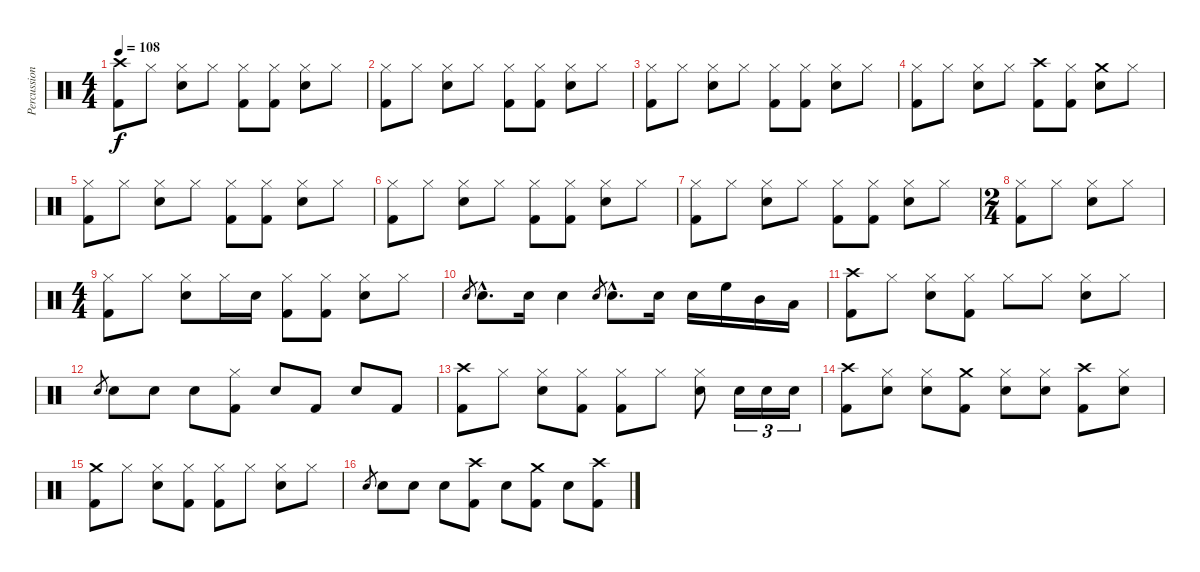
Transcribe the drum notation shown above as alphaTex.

\track ("Percussion" "Percussion") {instrument percussion}
\staff {score}
\articulation defaults
\ts (4 4)
\tempo 108
\clef neutral
\ks c
("Kick (hit) 2" "Crash high (hit)").8{dy f} "Hi-Hat (closed)".8 ("Snare (hit) 2" "Hi-Hat (closed)").8 "Hi-Hat (closed)".8 ("Kick (hit) 2" "Hi-Hat (closed)").8 ("Kick (hit) 2" "Hi-Hat (closed)").8 ("Snare (hit) 2" "Hi-Hat (closed)").8 "Hi-Hat (closed)".8 |
("Kick (hit) 2" "Hi-Hat (closed)").8 "Hi-Hat (closed)".8 ("Snare (hit) 2" "Hi-Hat (closed)").8 "Hi-Hat (closed)".8 ("Kick (hit) 2" "Hi-Hat (closed)").8 ("Kick (hit) 2" "Hi-Hat (closed)").8 ("Snare (hit) 2" "Hi-Hat (closed)").8 "Hi-Hat (closed)".8 |
("Kick (hit) 2" "Hi-Hat (closed)").8 "Hi-Hat (closed)".8 ("Snare (hit) 2" "Hi-Hat (closed)").8 "Hi-Hat (closed)".8 ("Kick (hit) 2" "Hi-Hat (closed)").8 ("Kick (hit) 2" "Hi-Hat (closed)").8 ("Snare (hit) 2" "Hi-Hat (closed)").8 "Hi-Hat (closed)".8 |
("Kick (hit) 2" "Hi-Hat (closed)").8 "Hi-Hat (closed)".8 ("Snare (hit) 2" "Hi-Hat (closed)").8 "Hi-Hat (closed)".8 ("Kick (hit) 2" "Crash high (hit)").8 ("Kick (hit) 2" "Hi-Hat (closed)").8 ("Snare (hit) 2" "Crash medium (hit)").8 "Hi-Hat (closed)".8 |
("Kick (hit) 2" "Hi-Hat (closed)").8 "Hi-Hat (closed)".8 ("Snare (hit) 2" "Hi-Hat (closed)").8 "Hi-Hat (closed)".8 ("Kick (hit) 2" "Hi-Hat (closed)").8 ("Kick (hit) 2" "Hi-Hat (closed)").8 ("Snare (hit) 2" "Hi-Hat (closed)").8 "Hi-Hat (closed)".8 |
("Kick (hit) 2" "Hi-Hat (closed)").8 "Hi-Hat (closed)".8 ("Snare (hit) 2" "Hi-Hat (closed)").8 "Hi-Hat (closed)".8 ("Kick (hit) 2" "Hi-Hat (closed)").8 ("Kick (hit) 2" "Hi-Hat (closed)").8 ("Snare (hit) 2" "Hi-Hat (closed)").8 "Hi-Hat (closed)".8 |
("Kick (hit) 2" "Hi-Hat (closed)").8 "Hi-Hat (closed)".8 ("Snare (hit) 2" "Hi-Hat (closed)").8 "Hi-Hat (closed)".8 ("Kick (hit) 2" "Hi-Hat (closed)").8 ("Kick (hit) 2" "Hi-Hat (closed)").8 ("Snare (hit) 2" "Hi-Hat (closed)").8 "Hi-Hat (closed)".8 |
\ts (2 4)
("Kick (hit) 2" "Hi-Hat (closed)").8 "Hi-Hat (closed)".8 ("Snare (hit) 2" "Hi-Hat (closed)").8 "Hi-Hat (closed)".8 |
\ts (4 4)
("Kick (hit) 2" "Hi-Hat (closed)").8 "Hi-Hat (closed)".8 ("Snare (hit) 2" "Hi-Hat (closed)").8 "Hi-Hat (closed)".16 "Snare (hit) 2".16 ("Kick (hit) 2" "Hi-Hat (closed)").8 ("Kick (hit) 2" "Hi-Hat (closed)").8 ("Snare (hit) 2" "Hi-Hat (closed)").8 "Hi-Hat (closed)".8 |
"Snare (hit) 2".8{gr} "Snare (hit) 2"{hac}.8{d} "Snare (hit) 2".16 "Snare (hit) 2".4 "Snare (hit) 2".8{gr} "Snare (hit) 2"{hac}.8{d} "Snare (hit) 2".16 "Snare (hit) 2".16 "High Floor Tom (hit)".16 "Mid Tom (hit)".16 "Low Tom (hit)".16 |
("Kick (hit) 2" "Crash high (hit)").8 "Hi-Hat (closed)".8 ("Snare (hit) 2" "Hi-Hat (closed)").8 ("Kick (hit) 2" "Hi-Hat (closed)").8 "Hi-Hat (closed)".8 "Hi-Hat (closed)".8 ("Snare (hit) 2" "Hi-Hat (closed)").8 "Hi-Hat (closed)".8 |
"Snare (hit) 2".8{gr} "Snare (hit) 2".8 "Snare (hit) 2".8 "Snare (hit) 2".8 ("Kick (hit) 2" "Hi-Hat (closed)").8 "Snare (hit) 2".8 "Kick (hit) 2".8 "Snare (hit) 2".8 "Kick (hit) 2".8 |
("Kick (hit) 2" "Crash high (hit)").8 "Hi-Hat (closed)".8 ("Snare (hit) 2" "Hi-Hat (closed)").8 ("Kick (hit) 2" "Hi-Hat (closed)").8 ("Kick (hit) 2" "Hi-Hat (closed)").8 "Hi-Hat (closed)".8 ("Snare (hit) 2" "Hi-Hat (closed)").8 "Snare (hit) 2".16{tu (3 2)} "Snare (hit) 2".16{tu (3 2)} "Snare (hit) 2".16{tu (3 2)} |
("Kick (hit) 2" "Crash high (hit)").8 ("Snare (hit) 2" "Hi-Hat (closed)").8 ("Snare (hit) 2" "Hi-Hat (closed)").8 ("Kick (hit) 2" "Crash medium (hit)").8 ("Snare (hit) 2" "Hi-Hat (closed)").8 ("Snare (hit) 2" "Hi-Hat (closed)").8 ("Kick (hit) 2" "Crash high (hit)").8 ("Snare (hit) 2" "Hi-Hat (closed)").8 |
("Kick (hit) 2" "Crash medium (hit)").8 "Hi-Hat (closed)".8 ("Snare (hit) 2" "Hi-Hat (closed)").8 ("Kick (hit) 2" "Hi-Hat (closed)").8 ("Kick (hit) 2" "Hi-Hat (closed)").8 "Hi-Hat (closed)".8 ("Snare (hit) 2" "Hi-Hat (closed)").8 "Hi-Hat (closed)".8 |
"Snare (hit) 2".8{gr} "Snare (hit) 2".8 "Snare (hit) 2".8 "Snare (hit) 2".8 ("Kick (hit) 2" "Crash high (hit)").8 "Snare (hit) 2".8 ("Kick (hit) 2" "Crash medium (hit)").8 "Snare (hit) 2".8 ("Kick (hit) 2" "Crash high (hit)").8
